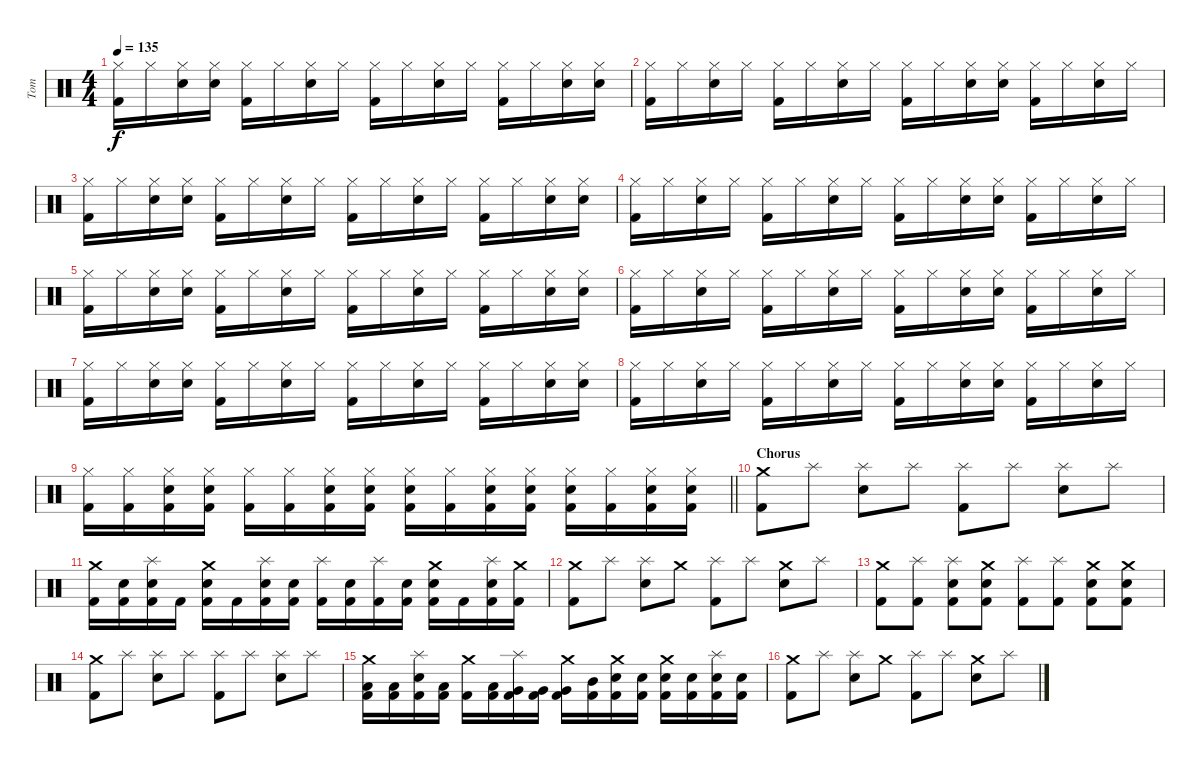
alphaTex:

\track ("Tom" "Tom") {instrument percussion}
\staff {score}
\articulation defaults
\ts (4 4)
\tempo 135
\clef neutral
\ks c
("Hi-Hat (closed)" "Kick (hit) 2").16{dy f} "Hi-Hat (closed)".16 ("Hi-Hat (closed)" "Electric Snare (hit)").16 ("Hi-Hat (closed)" "Electric Snare (hit)").16 ("Hi-Hat (closed)" "Kick (hit) 2").16 "Hi-Hat (closed)".16 ("Hi-Hat (closed)" "Electric Snare (hit)").16 "Hi-Hat (closed)".16 ("Hi-Hat (closed)" "Kick (hit) 2").16 "Hi-Hat (closed)".16 ("Hi-Hat (closed)" "Electric Snare (hit)").16 "Hi-Hat (closed)".16 ("Hi-Hat (closed)" "Kick (hit) 2").16 "Hi-Hat (closed)".16 ("Hi-Hat (closed)" "Electric Snare (hit)").16 ("Hi-Hat (closed)" "Electric Snare (hit)").16 |
("Hi-Hat (closed)" "Kick (hit) 2").16 "Hi-Hat (closed)".16 ("Hi-Hat (closed)" "Electric Snare (hit)").16 "Hi-Hat (closed)".16 ("Hi-Hat (closed)" "Kick (hit) 2").16 "Hi-Hat (closed)".16 ("Hi-Hat (closed)" "Electric Snare (hit)").16 "Hi-Hat (closed)".16 ("Hi-Hat (closed)" "Kick (hit) 2").16 "Hi-Hat (closed)".16 ("Hi-Hat (closed)" "Electric Snare (hit)").16 ("Hi-Hat (closed)" "Electric Snare (hit)").16 ("Hi-Hat (closed)" "Kick (hit) 2").16 "Hi-Hat (closed)".16 ("Hi-Hat (closed)" "Electric Snare (hit)").16 "Hi-Hat (closed)".16 |
("Hi-Hat (closed)" "Kick (hit) 2").16 "Hi-Hat (closed)".16 ("Hi-Hat (closed)" "Electric Snare (hit)").16 ("Hi-Hat (closed)" "Electric Snare (hit)").16 ("Hi-Hat (closed)" "Kick (hit) 2").16 "Hi-Hat (closed)".16 ("Hi-Hat (closed)" "Electric Snare (hit)").16 "Hi-Hat (closed)".16 ("Hi-Hat (closed)" "Kick (hit) 2").16 "Hi-Hat (closed)".16 ("Hi-Hat (closed)" "Electric Snare (hit)").16 "Hi-Hat (closed)".16 ("Hi-Hat (closed)" "Kick (hit) 2").16 "Hi-Hat (closed)".16 ("Hi-Hat (closed)" "Electric Snare (hit)").16 ("Hi-Hat (closed)" "Electric Snare (hit)").16 |
("Hi-Hat (closed)" "Kick (hit) 2").16 "Hi-Hat (closed)".16 ("Hi-Hat (closed)" "Electric Snare (hit)").16 "Hi-Hat (closed)".16 ("Hi-Hat (closed)" "Kick (hit) 2").16 "Hi-Hat (closed)".16 ("Hi-Hat (closed)" "Electric Snare (hit)").16 "Hi-Hat (closed)".16 ("Hi-Hat (closed)" "Kick (hit) 2").16 "Hi-Hat (closed)".16 ("Hi-Hat (closed)" "Electric Snare (hit)").16 ("Hi-Hat (closed)" "Electric Snare (hit)").16 ("Hi-Hat (closed)" "Kick (hit) 2").16 "Hi-Hat (closed)".16 ("Hi-Hat (closed)" "Electric Snare (hit)").16 "Hi-Hat (closed)".16 |
("Hi-Hat (closed)" "Kick (hit) 2").16 "Hi-Hat (closed)".16 ("Hi-Hat (closed)" "Electric Snare (hit)").16 ("Hi-Hat (closed)" "Electric Snare (hit)").16 ("Hi-Hat (closed)" "Kick (hit) 2").16 "Hi-Hat (closed)".16 ("Hi-Hat (closed)" "Electric Snare (hit)").16 "Hi-Hat (closed)".16 ("Hi-Hat (closed)" "Kick (hit) 2").16 "Hi-Hat (closed)".16 ("Hi-Hat (closed)" "Electric Snare (hit)").16 "Hi-Hat (closed)".16 ("Hi-Hat (closed)" "Kick (hit) 2").16 "Hi-Hat (closed)".16 ("Hi-Hat (closed)" "Electric Snare (hit)").16 ("Hi-Hat (closed)" "Electric Snare (hit)").16 |
("Hi-Hat (closed)" "Kick (hit) 2").16 "Hi-Hat (closed)".16 ("Hi-Hat (closed)" "Electric Snare (hit)").16 "Hi-Hat (closed)".16 ("Hi-Hat (closed)" "Kick (hit) 2").16 "Hi-Hat (closed)".16 ("Hi-Hat (closed)" "Electric Snare (hit)").16 "Hi-Hat (closed)".16 ("Hi-Hat (closed)" "Kick (hit) 2").16 "Hi-Hat (closed)".16 ("Hi-Hat (closed)" "Electric Snare (hit)").16 ("Hi-Hat (closed)" "Electric Snare (hit)").16 ("Hi-Hat (closed)" "Kick (hit) 2").16 "Hi-Hat (closed)".16 ("Hi-Hat (closed)" "Electric Snare (hit)").16 "Hi-Hat (closed)".16 |
("Hi-Hat (closed)" "Kick (hit) 2").16 "Hi-Hat (closed)".16 ("Hi-Hat (closed)" "Electric Snare (hit)").16 ("Hi-Hat (closed)" "Electric Snare (hit)").16 ("Hi-Hat (closed)" "Kick (hit) 2").16 "Hi-Hat (closed)".16 ("Hi-Hat (closed)" "Electric Snare (hit)").16 "Hi-Hat (closed)".16 ("Hi-Hat (closed)" "Kick (hit) 2").16 "Hi-Hat (closed)".16 ("Hi-Hat (closed)" "Electric Snare (hit)").16 "Hi-Hat (closed)".16 ("Hi-Hat (closed)" "Kick (hit) 2").16 "Hi-Hat (closed)".16 ("Hi-Hat (closed)" "Electric Snare (hit)").16 ("Hi-Hat (closed)" "Electric Snare (hit)").16 |
("Hi-Hat (closed)" "Kick (hit) 2").16 "Hi-Hat (closed)".16 ("Hi-Hat (closed)" "Electric Snare (hit)").16 "Hi-Hat (closed)".16 ("Hi-Hat (closed)" "Kick (hit) 2").16 "Hi-Hat (closed)".16 ("Hi-Hat (closed)" "Electric Snare (hit)").16 "Hi-Hat (closed)".16 ("Hi-Hat (closed)" "Kick (hit) 2").16 "Hi-Hat (closed)".16 ("Hi-Hat (closed)" "Electric Snare (hit)").16 ("Hi-Hat (closed)" "Electric Snare (hit)").16 ("Hi-Hat (closed)" "Kick (hit) 2").16 "Hi-Hat (closed)".16 ("Hi-Hat (closed)" "Electric Snare (hit)").16 "Hi-Hat (closed)".16 |
\barLineRight lightlight
("Hi-Hat (closed)" "Kick (hit) 2").16 ("Hi-Hat (closed)" "Kick (hit) 2").16 ("Hi-Hat (closed)" "Electric Snare (hit)" "Kick (hit) 2").16 ("Hi-Hat (closed)" "Electric Snare (hit)" "Kick (hit) 2").16 ("Hi-Hat (closed)" "Kick (hit) 2").16 ("Hi-Hat (closed)" "Kick (hit) 2").16 ("Hi-Hat (closed)" "Electric Snare (hit)" "Kick (hit) 2").16 ("Hi-Hat (closed)" "Electric Snare (hit)" "Kick (hit) 2").16 ("Hi-Hat (closed)" "Electric Snare (hit)" "Kick (hit) 2").16 ("Hi-Hat (closed)" "Kick (hit) 2").16 ("Hi-Hat (closed)" "Electric Snare (hit)" "Kick (hit) 2").16 ("Hi-Hat (closed)" "Electric Snare (hit)" "Kick (hit) 2").16 ("Hi-Hat (closed)" "Electric Snare (hit)" "Kick (hit) 2").16 ("Hi-Hat (closed)" "Kick (hit) 2").16 ("Hi-Hat (closed)" "Electric Snare (hit)" "Kick (hit) 2").16 ("Hi-Hat (closed)" "Electric Snare (hit)" "Kick (hit) 2").16 |
\section ("" "Chorus")
("Crash medium (hit)" "Kick (hit) 2").8 "Splash (hit)".8 ("Splash (hit)" "Electric Snare (hit)").8 "Splash (hit)".8 ("Splash (hit)" "Kick (hit) 2").8 "Splash (hit)".8 ("Splash (hit)" "Electric Snare (hit)").8 "Splash (hit)".8 |
("Crash medium (hit)" "Kick (hit) 2").16 ("Electric Snare (hit)" "Kick (hit) 2").16 ("Splash (hit)" "Electric Snare (hit)" "Kick (hit) 2").16 "Kick (hit) 2".16 ("Crash medium (hit)" "Electric Snare (hit)" "Kick (hit) 2").16 "Kick (hit) 2".16 ("Splash (hit)" "Electric Snare (hit)" "Kick (hit) 2").16 ("Electric Snare (hit)" "Kick (hit) 2").16 ("Splash (hit)" "Kick (hit) 2").16 ("Electric Snare (hit)" "Kick (hit) 2").16 ("Splash (hit)" "Kick (hit) 2").16 ("Electric Snare (hit)" "Kick (hit) 2").16 ("Crash medium (hit)" "Electric Snare (hit)" "Kick (hit) 2").16 "Kick (hit) 2".16 ("Splash (hit)" "Electric Snare (hit)" "Kick (hit) 2").16 ("Crash medium (hit)" "Kick (hit) 2").16 |
("Crash medium (hit)" "Kick (hit) 2").8 "Splash (hit)".8 ("Splash (hit)" "Electric Snare (hit)").8 "Crash medium (hit)".8 ("Splash (hit)" "Kick (hit) 2").8 "Splash (hit)".8 ("Crash medium (hit)" "Electric Snare (hit)").8 "Splash (hit)".8 |
("Crash medium (hit)" "Kick (hit) 2").8 ("Splash (hit)" "Kick (hit) 2").8 ("Splash (hit)" "Electric Snare (hit)" "Kick (hit) 2").8 ("Crash medium (hit)" "Electric Snare (hit)" "Kick (hit) 2").8 ("Splash (hit)" "Kick (hit) 2").8 ("Splash (hit)" "Kick (hit) 2").8 ("Crash medium (hit)" "Electric Snare (hit)" "Kick (hit) 2").8 ("Crash medium (hit)" "Electric Snare (hit)" "Kick (hit) 2").8 |
("Crash medium (hit)" "Kick (hit) 2").8 "Splash (hit)".8 ("Splash (hit)" "Electric Snare (hit)").8 "Splash (hit)".8 ("Splash (hit)" "Kick (hit) 2").8 "Splash (hit)".8 ("Splash (hit)" "Electric Snare (hit)").8 "Splash (hit)".8 |
("Crash medium (hit)" "Low Floor Tom (hit)" "Kick (hit) 2").16 ("Low Floor Tom (hit)" "Kick (hit) 2").16 ("Splash (hit)" "Electric Snare (hit)" "Kick (hit) 2").16 ("Low Floor Tom (hit)" "Kick (hit) 2").16 ("Crash medium (hit)" "Kick (hit) 2").16 ("Low Floor Tom (hit)" "Kick (hit) 2").16 ("Splash (hit)" "Very Low Tom (hit)" "Kick (hit) 2").16 ("Very Low Tom (hit)" "Kick (hit) 2").16 ("Crash medium (hit)" "Very Low Tom (hit)" "Kick (hit) 2").16 ("Mid Tom (hit)" "Kick (hit) 2").16 ("Crash medium (hit)" "Electric Snare (hit)" "Kick (hit) 2").16 ("Electric Snare (hit)" "Kick (hit) 2").16 ("Crash medium (hit)" "Electric Snare (hit)" "Kick (hit) 2").16 ("Electric Snare (hit)" "Kick (hit) 2").16 ("Splash (hit)" "Electric Snare (hit)" "Kick (hit) 2").16 ("Electric Snare (hit)" "Kick (hit) 2").16 |
("Crash medium (hit)" "Kick (hit) 2").8 "Splash (hit)".8 ("Splash (hit)" "Electric Snare (hit)").8 "Crash medium (hit)".8 ("Splash (hit)" "Kick (hit) 2").8 "Splash (hit)".8 ("Crash medium (hit)" "Electric Snare (hit)").8 "Splash (hit)".8
